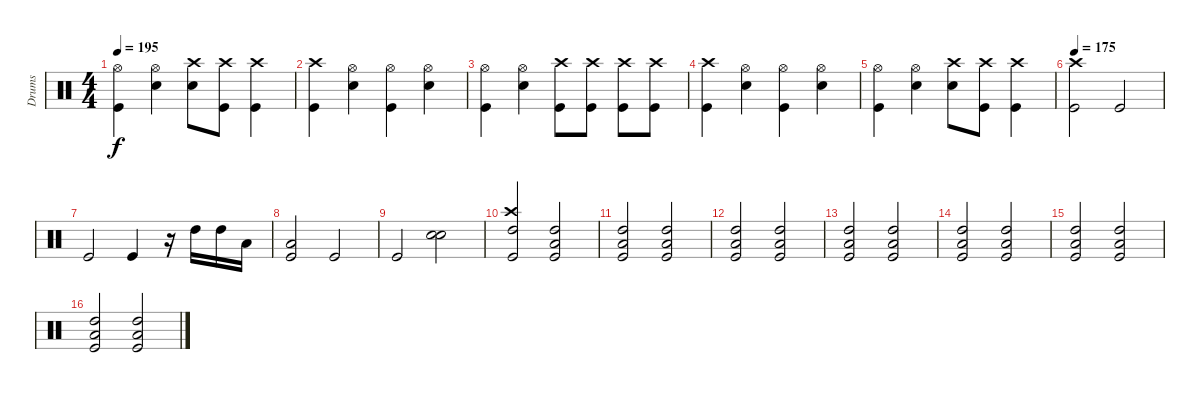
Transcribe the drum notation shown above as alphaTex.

\track ("Drums" "Drums") {instrument percussion}
\staff {score}
\articulation defaults
\ts (4 4)
\tempo 195
\clef neutral
\ks c
("Hi-Hat (open)" "Kick (hit)").4{dy f} ("Hi-Hat (open)" "Snare (hit) 2").4 ("Crash high (hit)" "Snare (hit) 2").8 ("Crash high (hit)" "Kick (hit)").8 ("Crash high (hit)" "Kick (hit)").4 |
("Crash high (hit)" "Kick (hit)").4 ("Hi-Hat (open)" "Snare (hit) 2").4 ("Hi-Hat (open)" "Kick (hit)").4 ("Hi-Hat (open)" "Snare (hit) 2").4 |
("Hi-Hat (open)" "Kick (hit)").4 ("Hi-Hat (open)" "Snare (hit) 2").4 ("Crash high (hit)" "Kick (hit)").8 ("Crash high (hit)" "Kick (hit)").8 ("Crash high (hit)" "Kick (hit)").8 ("Crash high (hit)" "Kick (hit)").8 |
("Crash high (hit)" "Kick (hit)").4 ("Hi-Hat (open)" "Snare (hit) 2").4 ("Hi-Hat (open)" "Kick (hit)").4 ("Hi-Hat (open)" "Snare (hit) 2").4 |
("Hi-Hat (open)" "Kick (hit)").4 ("Hi-Hat (open)" "Snare (hit) 2").4 ("Crash high (hit)" "Snare (hit) 2").8 ("Crash high (hit)" "Kick (hit)").8 ("Crash high (hit)" "Kick (hit)").4 |
\tempo 175
("Kick (hit)" "Crash high (hit)").2 "Kick (hit)".2 |
"Kick (hit)".2 "Kick (hit)".4 r.16 "High Tom (hit)".16 "High Tom (hit)".16 "Low Tom (hit)".16 |
("Kick (hit)" "Low Floor Tom (hit)").2 "Kick (hit)".2 |
"Kick (hit)".2 ("Snare (hit) 2" "Snare (hit) 2").2 |
("Kick (hit)" "High Tom (hit)" "Crash high (hit)").2 ("Kick (hit)" "High Tom (hit)" "Low Floor Tom (hit)").2 |
("Kick (hit)" "High Tom (hit)" "Low Floor Tom (hit)").2 ("Kick (hit)" "High Tom (hit)" "Low Floor Tom (hit)").2 |
("Kick (hit)" "High Tom (hit)" "Low Floor Tom (hit)").2 ("Kick (hit)" "High Tom (hit)" "Low Floor Tom (hit)").2 |
("Kick (hit)" "High Tom (hit)" "Low Floor Tom (hit)").2 ("Kick (hit)" "High Tom (hit)" "Low Floor Tom (hit)").2 |
("Kick (hit)" "High Tom (hit)" "Low Floor Tom (hit)").2 ("Kick (hit)" "High Tom (hit)" "Low Floor Tom (hit)").2 |
("Kick (hit)" "High Tom (hit)" "Low Floor Tom (hit)").2 ("Kick (hit)" "High Tom (hit)" "Low Floor Tom (hit)").2 |
("Kick (hit)" "High Tom (hit)" "Low Floor Tom (hit)").2 ("Kick (hit)" "High Tom (hit)" "Low Floor Tom (hit)").2
